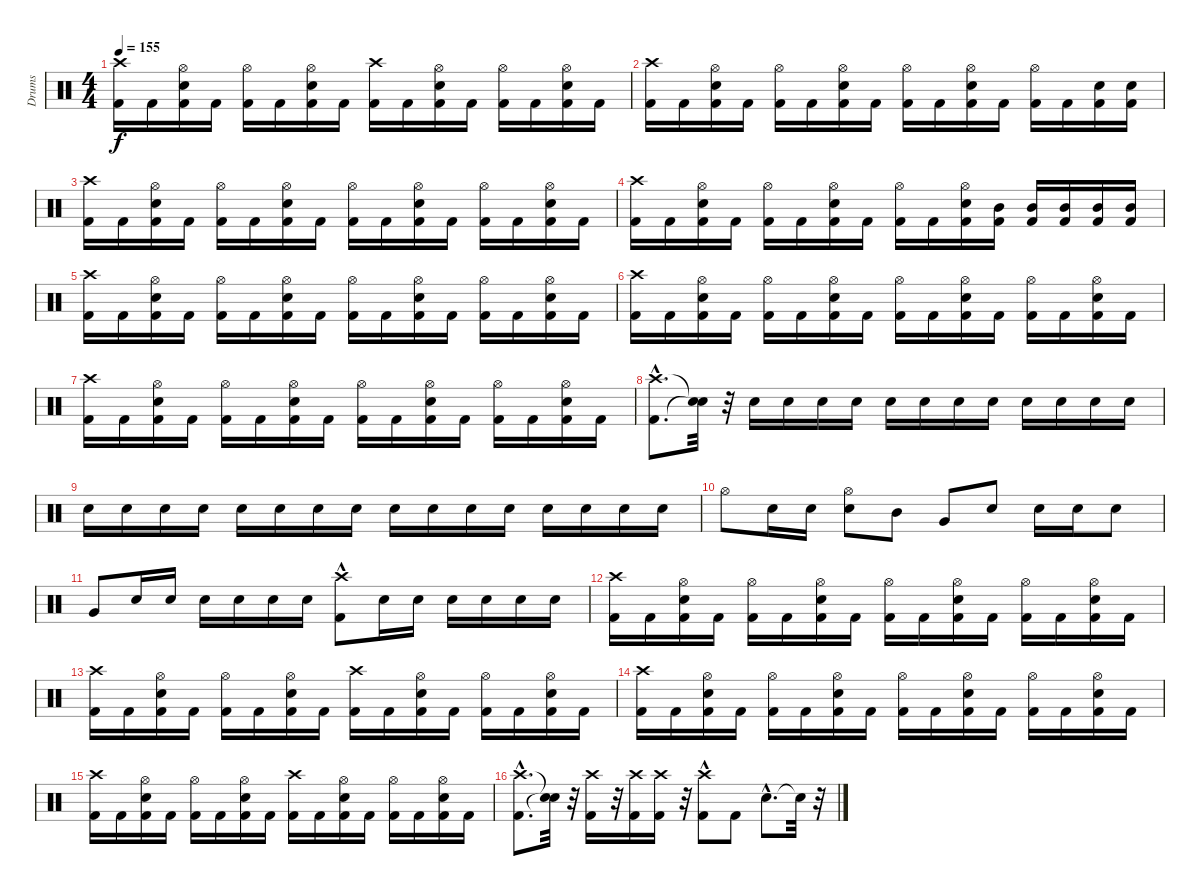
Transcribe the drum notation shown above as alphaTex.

\track ("Drums" "Drums") {instrument percussion}
\staff {score}
\articulation defaults
\ts (4 4)
\tempo 155
\clef neutral
\ks c
("Kick (hit) 2" "Crash high (hit)").16{dy f} "Kick (hit) 2".16 ("Kick (hit) 2" "Snare (hit) 2" "Hi-Hat (open)").16 "Kick (hit) 2".16 ("Kick (hit) 2" "Hi-Hat (open)").16 "Kick (hit) 2".16 ("Kick (hit) 2" "Snare (hit) 2" "Hi-Hat (open)").16 "Kick (hit) 2".16 ("Kick (hit) 2" "Crash high (hit)").16 "Kick (hit) 2".16 ("Kick (hit) 2" "Snare (hit) 2" "Hi-Hat (open)").16 "Kick (hit) 2".16 ("Kick (hit) 2" "Hi-Hat (open)").16 "Kick (hit) 2".16 ("Kick (hit) 2" "Snare (hit) 2" "Hi-Hat (open)").16 "Kick (hit) 2".16 |
("Kick (hit) 2" "Crash high (hit)").16 "Kick (hit) 2".16 ("Kick (hit) 2" "Snare (hit) 2" "Hi-Hat (open)").16 "Kick (hit) 2".16 ("Kick (hit) 2" "Hi-Hat (open)").16 "Kick (hit) 2".16 ("Kick (hit) 2" "Snare (hit) 2" "Hi-Hat (open)").16 "Kick (hit) 2".16 ("Kick (hit) 2" "Hi-Hat (open)").16 "Kick (hit) 2".16 ("Kick (hit) 2" "Snare (hit) 2" "Hi-Hat (open)").16 "Kick (hit) 2".16 ("Kick (hit) 2" "Hi-Hat (open)").16 "Kick (hit) 2".16 ("Kick (hit) 2" "Snare (hit) 2").16 ("Kick (hit) 2" "Snare (hit) 2").16 |
("Kick (hit) 2" "Crash high (hit)").16 "Kick (hit) 2".16 ("Kick (hit) 2" "Snare (hit) 2" "Hi-Hat (open)").16 "Kick (hit) 2".16 ("Kick (hit) 2" "Hi-Hat (open)").16 "Kick (hit) 2".16 ("Kick (hit) 2" "Snare (hit) 2" "Hi-Hat (open)").16 "Kick (hit) 2".16 ("Kick (hit) 2" "Hi-Hat (open)").16 "Kick (hit) 2".16 ("Kick (hit) 2" "Snare (hit) 2" "Hi-Hat (open)").16 "Kick (hit) 2".16 ("Kick (hit) 2" "Hi-Hat (open)").16 "Kick (hit) 2".16 ("Kick (hit) 2" "Snare (hit) 2" "Hi-Hat (open)").16 "Kick (hit) 2".16 |
("Kick (hit) 2" "Crash high (hit)").16 "Kick (hit) 2".16 ("Kick (hit) 2" "Snare (hit) 2" "Hi-Hat (open)").16 "Kick (hit) 2".16 ("Kick (hit) 2" "Hi-Hat (open)").16 "Kick (hit) 2".16 ("Kick (hit) 2" "Snare (hit) 2" "Hi-Hat (open)").16 "Kick (hit) 2".16 ("Kick (hit) 2" "Hi-Hat (open)").16 "Kick (hit) 2".16 ("Kick (hit) 2" "Hi-Hat (open)" "Snare (hit) 2").16 ("Kick (hit) 2" "Mid Tom (hit)").16 ("Kick (hit) 2" "Mid Tom (hit)").16 ("Kick (hit) 2" "Mid Tom (hit)").16 ("Kick (hit) 2" "Mid Tom (hit)").16 ("Kick (hit) 2" "Mid Tom (hit)").16 |
("Kick (hit) 2" "Crash high (hit)").16 "Kick (hit) 2".16 ("Kick (hit) 2" "Snare (hit) 2" "Hi-Hat (open)").16 "Kick (hit) 2".16 ("Kick (hit) 2" "Hi-Hat (open)").16 "Kick (hit) 2".16 ("Kick (hit) 2" "Snare (hit) 2" "Hi-Hat (open)").16 "Kick (hit) 2".16 ("Kick (hit) 2" "Hi-Hat (open)").16 "Kick (hit) 2".16 ("Kick (hit) 2" "Snare (hit) 2" "Hi-Hat (open)").16 "Kick (hit) 2".16 ("Kick (hit) 2" "Hi-Hat (open)").16 "Kick (hit) 2".16 ("Kick (hit) 2" "Snare (hit) 2" "Hi-Hat (open)").16 "Kick (hit) 2".16 |
("Kick (hit) 2" "Crash high (hit)").16 "Kick (hit) 2".16 ("Kick (hit) 2" "Snare (hit) 2" "Hi-Hat (open)").16 "Kick (hit) 2".16 ("Kick (hit) 2" "Hi-Hat (open)").16 "Kick (hit) 2".16 ("Kick (hit) 2" "Snare (hit) 2" "Hi-Hat (open)").16 "Kick (hit) 2".16 ("Kick (hit) 2" "Hi-Hat (open)").16 "Kick (hit) 2".16 ("Kick (hit) 2" "Snare (hit) 2" "Hi-Hat (open)").16 "Kick (hit) 2".16 ("Kick (hit) 2" "Hi-Hat (open)").16 "Kick (hit) 2".16 ("Kick (hit) 2" "Snare (hit) 2" "Hi-Hat (open)").16 "Kick (hit) 2".16 |
("Kick (hit) 2" "Crash high (hit)").16 "Kick (hit) 2".16 ("Kick (hit) 2" "Snare (hit) 2" "Hi-Hat (open)").16 "Kick (hit) 2".16 ("Kick (hit) 2" "Hi-Hat (open)").16 "Kick (hit) 2".16 ("Kick (hit) 2" "Snare (hit) 2" "Hi-Hat (open)").16 "Kick (hit) 2".16 ("Kick (hit) 2" "Hi-Hat (open)").16 "Kick (hit) 2".16 ("Kick (hit) 2" "Snare (hit) 2" "Hi-Hat (open)").16 "Kick (hit) 2".16 ("Kick (hit) 2" "Hi-Hat (open)").16 "Kick (hit) 2".16 ("Kick (hit) 2" "Snare (hit) 2" "Hi-Hat (open)").16 "Kick (hit) 2".16 |
("Kick (hit) 2"{hac} "Crash high (hit)"{hac}).8{d} ("Snare (hit)"{t} "Snare (hit)"{t}).32 r.32 "Snare (hit) 2".16 "Snare (hit) 2".16 "Snare (hit) 2".16 "Snare (hit) 2".16 "Snare (hit) 2".16 "Snare (hit) 2".16 "Snare (hit) 2".16 "Snare (hit) 2".16 "Snare (hit) 2".16 "Snare (hit) 2".16 "Snare (hit) 2".16 "Snare (hit) 2".16 |
"Snare (hit) 2".16 "Snare (hit) 2".16 "Snare (hit) 2".16 "Snare (hit) 2".16 "Snare (hit) 2".16 "Snare (hit) 2".16 "Snare (hit) 2".16 "Snare (hit) 2".16 "Snare (hit) 2".16 "Snare (hit) 2".16 "Snare (hit) 2".16 "Snare (hit) 2".16 "Snare (hit) 2".16 "Snare (hit) 2".16 "Snare (hit) 2".16 "Snare (hit) 2".16 |
"Hi-Hat (open)".8 "Snare (hit) 2".16 "Snare (hit) 2".16 ("Snare (hit) 2" "Hi-Hat (open)").8 "Mid Tom (hit)".8 "Very Low Tom (hit)".8 "Snare (hit) 2".8 "Snare (hit) 2".16 "Snare (hit) 2".16 "Snare (hit) 2".8 |
"Very Low Tom (hit)".8 "Snare (hit) 2".16 "Snare (hit) 2".16 "Snare (hit) 2".16 "Snare (hit) 2".16 "Snare (hit) 2".16 "Snare (hit) 2".16 ("Crash high (hit)" "Kick (hit) 2"{hac}).8 "Snare (hit) 2".16 "Snare (hit) 2".16 "Snare (hit) 2".16 "Snare (hit) 2".16 "Snare (hit) 2".16 "Snare (hit) 2".16 |
("Kick (hit) 2" "Crash high (hit)").16 "Kick (hit) 2".16 ("Kick (hit) 2" "Snare (hit) 2" "Hi-Hat (open)").16 "Kick (hit) 2".16 ("Kick (hit) 2" "Hi-Hat (open)").16 "Kick (hit) 2".16 ("Kick (hit) 2" "Snare (hit) 2" "Hi-Hat (open)").16 "Kick (hit) 2".16 ("Kick (hit) 2" "Hi-Hat (open)").16 "Kick (hit) 2".16 ("Kick (hit) 2" "Snare (hit) 2" "Hi-Hat (open)").16 "Kick (hit) 2".16 ("Kick (hit) 2" "Hi-Hat (open)").16 "Kick (hit) 2".16 ("Kick (hit) 2" "Snare (hit) 2" "Hi-Hat (open)").16 "Kick (hit) 2".16 |
("Kick (hit) 2" "Crash high (hit)").16 "Kick (hit) 2".16 ("Kick (hit) 2" "Snare (hit) 2" "Hi-Hat (open)").16 "Kick (hit) 2".16 ("Kick (hit) 2" "Hi-Hat (open)").16 "Kick (hit) 2".16 ("Kick (hit) 2" "Snare (hit) 2" "Hi-Hat (open)").16 "Kick (hit) 2".16 ("Kick (hit) 2" "Crash high (hit)").16 "Kick (hit) 2".16 ("Kick (hit) 2" "Snare (hit) 2" "Hi-Hat (open)").16 "Kick (hit) 2".16 ("Kick (hit) 2" "Hi-Hat (open)").16 "Kick (hit) 2".16 ("Kick (hit) 2" "Snare (hit) 2" "Hi-Hat (open)").16 "Kick (hit) 2".16 |
("Kick (hit) 2" "Crash high (hit)").16 "Kick (hit) 2".16 ("Kick (hit) 2" "Snare (hit) 2" "Hi-Hat (open)").16 "Kick (hit) 2".16 ("Kick (hit) 2" "Hi-Hat (open)").16 "Kick (hit) 2".16 ("Kick (hit) 2" "Snare (hit) 2" "Hi-Hat (open)").16 "Kick (hit) 2".16 ("Kick (hit) 2" "Hi-Hat (open)").16 "Kick (hit) 2".16 ("Kick (hit) 2" "Snare (hit) 2" "Hi-Hat (open)").16 "Kick (hit) 2".16 ("Kick (hit) 2" "Hi-Hat (open)").16 "Kick (hit) 2".16 ("Kick (hit) 2" "Snare (hit) 2" "Hi-Hat (open)").16 "Kick (hit) 2".16 |
("Kick (hit) 2" "Crash high (hit)").16 "Kick (hit) 2".16 ("Kick (hit) 2" "Snare (hit) 2" "Hi-Hat (open)").16 "Kick (hit) 2".16 ("Kick (hit) 2" "Hi-Hat (open)").16 "Kick (hit) 2".16 ("Kick (hit) 2" "Snare (hit) 2" "Hi-Hat (open)").16 "Kick (hit) 2".16 ("Kick (hit) 2" "Crash high (hit)").16 "Kick (hit) 2".16 ("Kick (hit) 2" "Snare (hit) 2" "Hi-Hat (open)").16 "Kick (hit) 2".16 ("Kick (hit) 2" "Hi-Hat (open)").16 "Kick (hit) 2".16 ("Kick (hit) 2" "Snare (hit) 2" "Hi-Hat (open)").16 "Kick (hit) 2".16 |
("Kick (hit) 2"{hac} "Crash high (hit)"{hac}).8{d} ("Snare (hit)"{t} "Snare (hit)"{t}).32 r.32 ("Kick (hit) 2" "Crash high (hit)").16 r.32 ("Kick (hit) 2" "Crash high (hit)").16 ("Kick (hit) 2" "Crash high (hit)").16 r.32 ("Kick (hit) 2" "Crash high (hit)"{hac}).8 "Kick (hit) 2".8 "Snare (hit) 2"{hac}.8{d} "Snare (hit)"{t}.32 r.32
